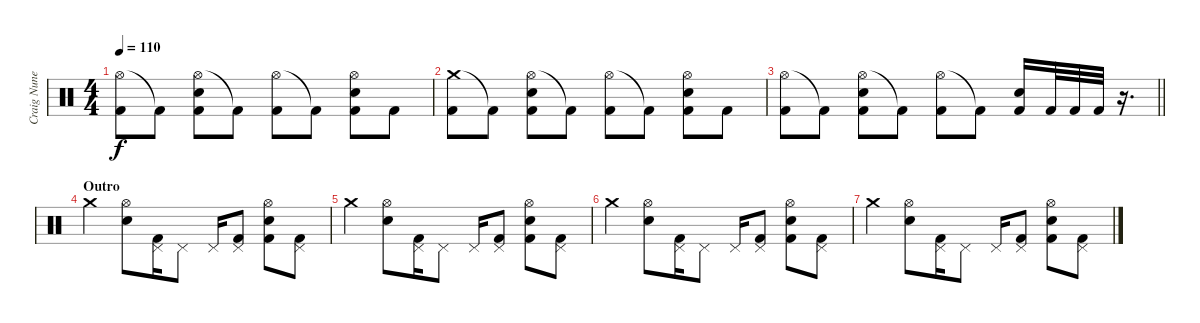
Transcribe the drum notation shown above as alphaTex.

\track ("Craig Nunenmacher" "Craig Nune") {instrument percussion}
\staff {score}
\articulation defaults
\ts (4 4)
\tempo 110
\clef neutral
\ks c
("Hi-Hat (open)" "Kick (hit) 2").8{dy f} "Kick (hit) 2"{t}.8 ("Hi-Hat (open)" "Snare (hit) 2" "Kick (hit) 2").8 "Kick (hit) 2"{t}.8 ("Hi-Hat (open)" "Kick (hit) 2").8 "Kick (hit) 2"{t}.8 ("Hi-Hat (open)" "Snare (hit) 2" "Kick (hit) 2").8 "Kick (hit) 2".8 |
("Crash medium (hit)" "Kick (hit) 2").8 "Kick (hit) 2"{t}.8 ("Hi-Hat (open)" "Snare (hit) 2" "Kick (hit) 2").8 "Kick (hit) 2"{t}.8 ("Hi-Hat (open)" "Kick (hit) 2").8 "Kick (hit) 2"{t}.8 ("Hi-Hat (open)" "Snare (hit) 2" "Kick (hit) 2").8 "Kick (hit) 2".8 |
\barLineRight lightlight
("Hi-Hat (open)" "Kick (hit) 2").8 "Kick (hit) 2"{t}.8 ("Hi-Hat (open)" "Snare (hit) 2" "Kick (hit) 2").8 "Kick (hit) 2"{t}.8 ("Hi-Hat (open)" "Kick (hit) 2").8 "Kick (hit) 2"{t}.8 ("Snare (hit) 2" "Kick (hit) 2").16 "Kick (hit) 2".32 "Kick (hit) 2".32 "Kick (hit) 2".32 r.16{d} |
\section ("" "Outro")
"Crash medium (hit)".4 ("Hi-Hat (open)" "Snare (hit) 2").8 ("Pedal Hi-Hat (hit)" "Kick (hit) 2").16 "Pedal Hi-Hat (hit)".8 "Pedal Hi-Hat (hit)".16 ("Pedal Hi-Hat (hit)" "Kick (hit) 2").8 ("Hi-Hat (open)" "Snare (hit) 2" "Kick (hit) 2").8 ("Pedal Hi-Hat (hit)" "Kick (hit) 2").8 |
"Crash medium (hit)".4 ("Hi-Hat (open)" "Snare (hit) 2").8 ("Pedal Hi-Hat (hit)" "Kick (hit) 2").16 "Pedal Hi-Hat (hit)".8 "Pedal Hi-Hat (hit)".16 ("Pedal Hi-Hat (hit)" "Kick (hit) 2").8 ("Hi-Hat (open)" "Snare (hit) 2" "Kick (hit) 2").8 ("Pedal Hi-Hat (hit)" "Kick (hit) 2").8 |
"Crash medium (hit)".4 ("Hi-Hat (open)" "Snare (hit) 2").8 ("Pedal Hi-Hat (hit)" "Kick (hit) 2").16 "Pedal Hi-Hat (hit)".8 "Pedal Hi-Hat (hit)".16 ("Pedal Hi-Hat (hit)" "Kick (hit) 2").8 ("Hi-Hat (open)" "Snare (hit) 2" "Kick (hit) 2").8 ("Pedal Hi-Hat (hit)" "Kick (hit) 2").8 |
"Crash medium (hit)".4 ("Hi-Hat (open)" "Snare (hit) 2").8 ("Pedal Hi-Hat (hit)" "Kick (hit) 2").16 "Pedal Hi-Hat (hit)".8 "Pedal Hi-Hat (hit)".16 ("Pedal Hi-Hat (hit)" "Kick (hit) 2").8 ("Hi-Hat (open)" "Snare (hit) 2" "Kick (hit) 2").8 ("Pedal Hi-Hat (hit)" "Kick (hit) 2").8
